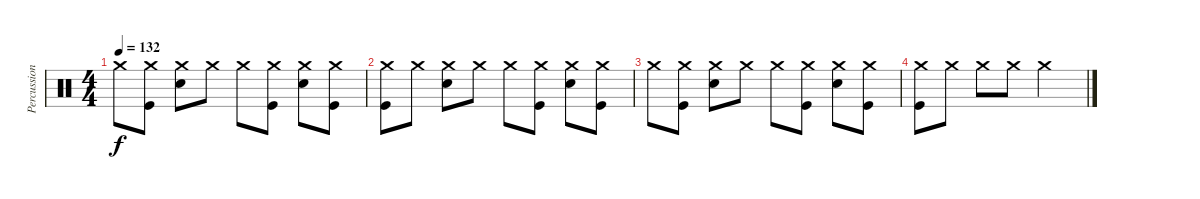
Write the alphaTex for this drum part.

\track ("Percussion" "Percussion") {instrument percussion}
\staff {score}
\articulation defaults
\ts (4 4)
\tempo 132
\clef neutral
\ks c "Crash medium (hit)".8{dy f}
("Crash medium (hit)" "Kick (hit)").8 ("Crash medium (hit)" "Snare (hit) 2").8 "Crash medium (hit)".8 "Crash medium (hit)".8 ("Crash medium (hit)" "Kick (hit)").8 ("Crash medium (hit)" "Snare (hit) 2").8 ("Crash medium (hit)" "Kick (hit)").8 |
("Crash medium (hit)" "Kick (hit)").8 "Crash medium (hit)".8 ("Crash medium (hit)" "Snare (hit) 2").8 "Crash medium (hit)".8 "Crash medium (hit)".8 ("Crash medium (hit)" "Kick (hit)").8 ("Crash medium (hit)" "Snare (hit) 2").8 ("Crash medium (hit)" "Kick (hit)").8 |
"Crash medium (hit)".8 ("Crash medium (hit)" "Kick (hit)").8 ("Crash medium (hit)" "Snare (hit) 2").8 "Crash medium (hit)".8 "Crash medium (hit)".8 ("Crash medium (hit)" "Kick (hit)").8 ("Crash medium (hit)" "Snare (hit) 2").8 ("Crash medium (hit)" "Kick (hit)").8 |
("Crash medium (hit)" "Kick (hit)").8 "Crash medium (hit)".8 "Crash medium (hit)".8 "Crash medium (hit)".8 "Crash medium (hit)".2
